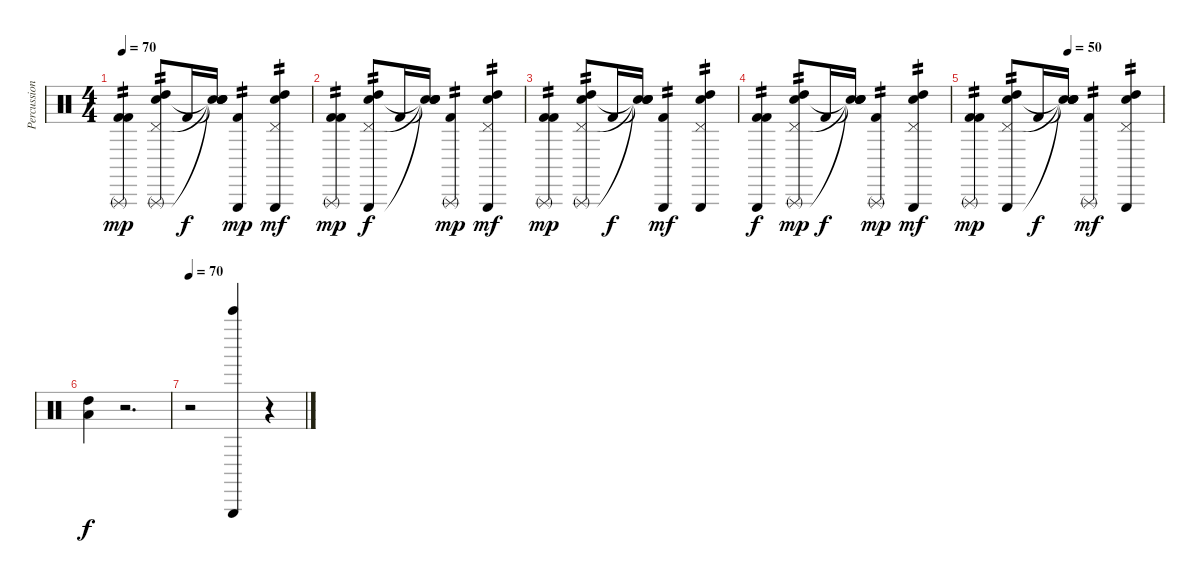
\track ("Percussion" "Percussion") {instrument percussion}
\staff {score}
\articulation defaults
\ts (4 4)
\tempo 70
\clef neutral
\ks c
("Kick (hit) 2" "Triangle (rnute)" "Kick (hit) 2").4{tp 2 dy mp} ("High Tom (hit)" "Pedal Hi-Hat (hit)" "Snare (hit) 2" "Triangle (rnute)").8{tp 2} "Kick (hit) 2".16{dy f} ("Snare (hit)"{t} "Snare (hit)"{t} "Snare (hit)"{t} "Snare (hit)"{t}).16 ("Triangle (hit)" "Kick (hit) 2").4{tp 2 dy mp} ("High Tom (hit)" "Pedal Hi-Hat (hit)" "Snare (hit) 2" "Triangle (hit)").4{tp 2 dy mf} |
("Kick (hit) 2" "Triangle (rnute)" "Kick (hit) 2").4{tp 2 dy mp} ("High Tom (hit)" "Pedal Hi-Hat (hit)" "Snare (hit) 2" "Triangle (hit)").8{tp 2 dy f} "Kick (hit) 2".16 ("Snare (hit)"{t} "Snare (hit)"{t} "Snare (hit)"{t} "Snare (hit)"{t}).16 ("Triangle (rnute)" "Kick (hit) 2").4{tp 2 dy mp} ("High Tom (hit)" "Pedal Hi-Hat (hit)" "Snare (hit) 2" "Triangle (hit)").4{tp 2 dy mf} |
("Kick (hit) 2" "Triangle (rnute)" "Kick (hit) 2").4{tp 2 dy mp} ("High Tom (hit)" "Pedal Hi-Hat (hit)" "Snare (hit) 2" "Triangle (rnute)").8{tp 2} "Kick (hit) 2".16{dy f} ("Snare (hit)"{t} "Snare (hit)"{t} "Snare (hit)"{t} "Snare (hit)"{t}).16 ("Triangle (hit)" "Kick (hit) 2").4{tp 2 dy mf} ("High Tom (hit)" "Pedal Hi-Hat (hit)" "Snare (hit) 2" "Triangle (hit)").4{tp 2} |
("Kick (hit) 2" "Triangle (hit)" "Kick (hit) 2").4{tp 2 dy f} ("High Tom (hit)" "Pedal Hi-Hat (hit)" "Snare (hit) 2" "Triangle (rnute)").8{tp 2 dy mp} "Kick (hit) 2".16{dy f} ("Snare (hit)"{t} "Snare (hit)"{t} "Snare (hit)"{t} "Snare (hit)"{t}).16 ("Triangle (rnute)" "Kick (hit) 2").4{tp 2 dy mp} ("High Tom (hit)" "Pedal Hi-Hat (hit)" "Snare (hit) 2" "Triangle (hit)").4{tp 2 dy mf} |
\tempo (50 0.5)
("Kick (hit) 2" "Triangle (rnute)" "Kick (hit) 2").4{tp 2 dy mp} ("High Tom (hit)" "Pedal Hi-Hat (hit)" "Snare (hit) 2" "Triangle (hit)").8{tp 2} "Kick (hit) 2".16{dy f} ("Snare (hit)"{t} "Snare (hit)"{t} "Snare (hit)"{t} "Snare (hit)"{t}).16 ("Triangle (rnute)" "Kick (hit) 2").4{tp 2 dy mf} ("High Tom (hit)" "Pedal Hi-Hat (hit)" "Snare (hit) 2" "Triangle (hit)").4{tp 2} |
("Low Floor Tom (hit)" "High Tom (hit)").4{dy f} r.2{d} |
\tempo 70
r.2 ("Bell Tree (hit)" "Triangle (hit)").4 r.4
